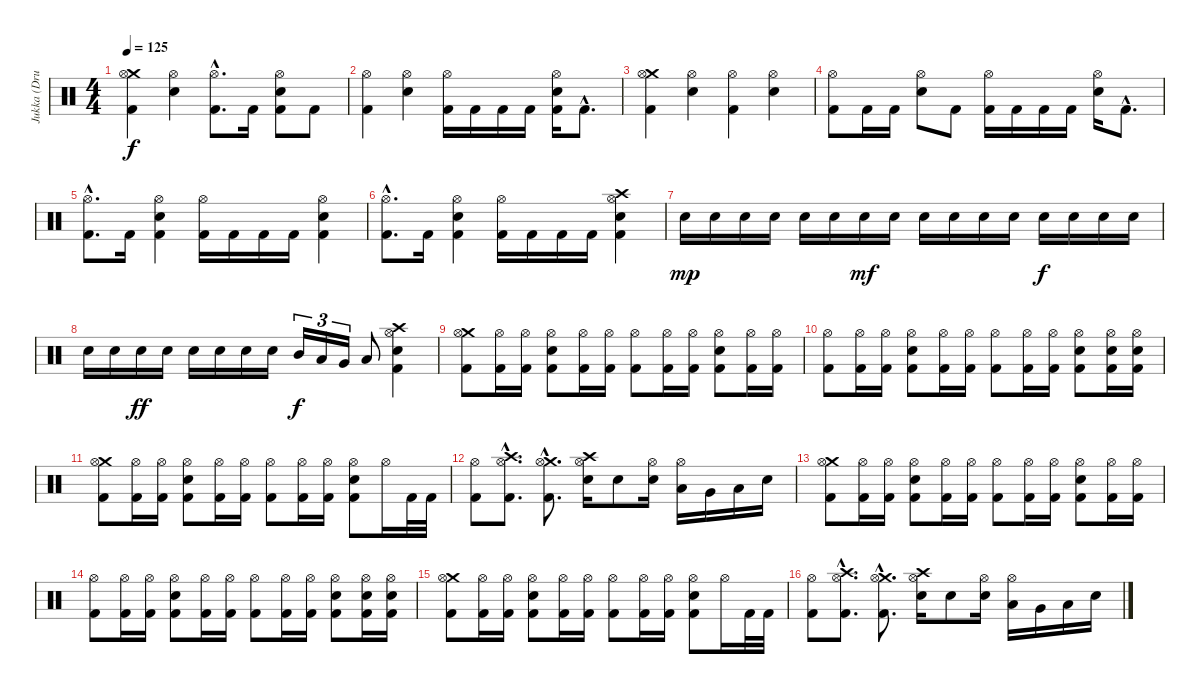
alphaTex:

\track ("Jukka (Drums)" "Jukka (Dru") {instrument percussion}
\staff {score}
\articulation defaults
\ts (4 4)
\tempo 125
\clef neutral
\ks c
("Crash medium (hit)" "Hi-Hat (open)" "Kick (hit) 2").4{dy f} ("Hi-Hat (open)" "Electric Snare (hit)").4 ("Hi-Hat (open)"{hac} "Kick (hit) 2"{hac}).8{d} "Kick (hit) 2".16 ("Hi-Hat (open)" "Electric Snare (hit)" "Kick (hit) 2").8 "Kick (hit) 2".8 |
("Hi-Hat (open)" "Kick (hit) 2").4 ("Hi-Hat (open)" "Electric Snare (hit)").4 ("Hi-Hat (open)" "Kick (hit) 2").16 "Kick (hit) 2".16 "Kick (hit) 2".16 "Kick (hit) 2".16 ("Hi-Hat (open)" "Electric Snare (hit)" "Kick (hit) 2").16 "Kick (hit) 2"{hac}.8{d} |
("Crash medium (hit)" "Hi-Hat (open)" "Kick (hit) 2").4 ("Hi-Hat (open)" "Electric Snare (hit)").4 ("Hi-Hat (open)" "Kick (hit) 2").4 ("Hi-Hat (open)" "Electric Snare (hit)").4 |
("Hi-Hat (open)" "Kick (hit) 2").8 "Kick (hit) 2".16 "Kick (hit) 2".16 ("Hi-Hat (open)" "Electric Snare (hit)").8 "Kick (hit) 2".8 ("Hi-Hat (open)" "Kick (hit) 2").16 "Kick (hit) 2".16 "Kick (hit) 2".16 "Kick (hit) 2".16 ("Hi-Hat (open)" "Electric Snare (hit)").16 "Kick (hit) 2"{hac}.8{d} |
("Hi-Hat (open)"{hac} "Kick (hit) 2"{hac}).8{d} "Kick (hit) 2".16 ("Hi-Hat (open)" "Electric Snare (hit)" "Kick (hit) 2").4 ("Hi-Hat (open)" "Kick (hit) 2").16 "Kick (hit) 2".16 "Kick (hit) 2".16 "Kick (hit) 2".16 ("Hi-Hat (open)" "Electric Snare (hit)" "Kick (hit) 2").4 |
("Hi-Hat (open)"{hac} "Kick (hit) 2"{hac}).8{d} "Kick (hit) 2".16 ("Hi-Hat (open)" "Electric Snare (hit)" "Kick (hit) 2").4 ("Hi-Hat (open)" "Kick (hit) 2").16 "Kick (hit) 2".16 "Kick (hit) 2".16 "Kick (hit) 2".16 ("Crash high (hit)" "Hi-Hat (open)" "Electric Snare (hit)" "Kick (hit) 2").4 |
"Electric Snare (hit)".16{dy mp} "Electric Snare (hit)".16 "Electric Snare (hit)".16 "Electric Snare (hit)".16 "Electric Snare (hit)".16 "Electric Snare (hit)".16 "Electric Snare (hit)".16{dy mf} "Electric Snare (hit)".16 "Electric Snare (hit)".16 "Electric Snare (hit)".16 "Electric Snare (hit)".16 "Electric Snare (hit)".16 "Electric Snare (hit)".16{dy f} "Electric Snare (hit)".16 "Electric Snare (hit)".16 "Electric Snare (hit)".16 |
"Electric Snare (hit)".16 "Electric Snare (hit)".16 "Electric Snare (hit)".16{dy ff} "Electric Snare (hit)".16 "Electric Snare (hit)".16 "Electric Snare (hit)".16 "Electric Snare (hit)".16 "Electric Snare (hit)".16 "Mid Tom (hit)".16{tu (3 2) dy f} "Low Tom (hit)".16{tu (3 2)} "Very Low Tom (hit)".16{tu (3 2)} "Low Floor Tom (hit)".8 ("Crash high (hit)" "Hi-Hat (open)" "Electric Snare (hit)" "Kick (hit) 2").4 |
("Crash medium (hit)" "Hi-Hat (open)" "Kick (hit) 2").8 ("Hi-Hat (open)" "Kick (hit) 2").16 ("Hi-Hat (open)" "Kick (hit) 2").16 ("Hi-Hat (open)" "Electric Snare (hit)" "Kick (hit) 2").8 ("Hi-Hat (open)" "Kick (hit) 2").16 ("Hi-Hat (open)" "Kick (hit) 2").16 ("Hi-Hat (open)" "Kick (hit) 2").8 ("Hi-Hat (open)" "Kick (hit) 2").16 ("Hi-Hat (open)" "Kick (hit) 2").16 ("Hi-Hat (open)" "Electric Snare (hit)" "Kick (hit) 2").8 ("Hi-Hat (open)" "Kick (hit) 2").16 ("Hi-Hat (open)" "Kick (hit) 2").16 |
("Hi-Hat (open)" "Kick (hit) 2").8 ("Hi-Hat (open)" "Kick (hit) 2").16 ("Hi-Hat (open)" "Kick (hit) 2").16 ("Hi-Hat (open)" "Electric Snare (hit)" "Kick (hit) 2").8 ("Hi-Hat (open)" "Kick (hit) 2").16 ("Hi-Hat (open)" "Kick (hit) 2").16 ("Hi-Hat (open)" "Kick (hit) 2").8 ("Hi-Hat (open)" "Kick (hit) 2").16 ("Hi-Hat (open)" "Kick (hit) 2").16 ("Hi-Hat (open)" "Electric Snare (hit)" "Kick (hit) 2").8 ("Hi-Hat (open)" "Electric Snare (hit)" "Kick (hit) 2").16 ("Hi-Hat (open)" "Electric Snare (hit)" "Kick (hit) 2").16 |
("Crash medium (hit)" "Hi-Hat (open)" "Kick (hit) 2").8 ("Hi-Hat (open)" "Kick (hit) 2").16 ("Hi-Hat (open)" "Kick (hit) 2").16 ("Hi-Hat (open)" "Electric Snare (hit)" "Kick (hit) 2").8 ("Hi-Hat (open)" "Kick (hit) 2").16 ("Hi-Hat (open)" "Kick (hit) 2").16 ("Hi-Hat (open)" "Kick (hit) 2").8 ("Hi-Hat (open)" "Kick (hit) 2").16 ("Hi-Hat (open)" "Kick (hit) 2").16 ("Hi-Hat (open)" "Electric Snare (hit)" "Kick (hit) 2").8 "Hi-Hat (open)".16 "Kick (hit) 2".32 "Kick (hit) 2".32 |
("Hi-Hat (open)" "Kick (hit) 2").8 ("Crash high (hit)"{hac} "Hi-Hat (open)"{hac} "Kick (hit) 2"{hac}).8{d} ("Crash medium (hit)"{hac} "Hi-Hat (open)"{hac} "Kick (hit) 2"{hac}).8{d} ("Crash high (hit)" "Hi-Hat (open)" "Electric Snare (hit)").16 "Electric Snare (hit)".8 ("Hi-Hat (open)" "Electric Snare (hit)").16 ("Hi-Hat (open)" "Low Tom (hit)").16 "Very Low Tom (hit)".16 "Low Floor Tom (hit)".16 "Electric Snare (hit)".16 |
("Crash medium (hit)" "Hi-Hat (open)" "Kick (hit) 2").8 ("Hi-Hat (open)" "Kick (hit) 2").16 ("Hi-Hat (open)" "Kick (hit) 2").16 ("Hi-Hat (open)" "Electric Snare (hit)" "Kick (hit) 2").8 ("Hi-Hat (open)" "Kick (hit) 2").16 ("Hi-Hat (open)" "Kick (hit) 2").16 ("Hi-Hat (open)" "Kick (hit) 2").8 ("Hi-Hat (open)" "Kick (hit) 2").16 ("Hi-Hat (open)" "Kick (hit) 2").16 ("Hi-Hat (open)" "Electric Snare (hit)" "Kick (hit) 2").8 ("Hi-Hat (open)" "Kick (hit) 2").16 ("Hi-Hat (open)" "Kick (hit) 2").16 |
("Hi-Hat (open)" "Kick (hit) 2").8 ("Hi-Hat (open)" "Kick (hit) 2").16 ("Hi-Hat (open)" "Kick (hit) 2").16 ("Hi-Hat (open)" "Electric Snare (hit)" "Kick (hit) 2").8 ("Hi-Hat (open)" "Kick (hit) 2").16 ("Hi-Hat (open)" "Kick (hit) 2").16 ("Hi-Hat (open)" "Kick (hit) 2").8 ("Hi-Hat (open)" "Kick (hit) 2").16 ("Hi-Hat (open)" "Kick (hit) 2").16 ("Hi-Hat (open)" "Electric Snare (hit)" "Kick (hit) 2").8 ("Hi-Hat (open)" "Electric Snare (hit)" "Kick (hit) 2").16 ("Hi-Hat (open)" "Electric Snare (hit)" "Kick (hit) 2").16 |
("Crash medium (hit)" "Hi-Hat (open)" "Kick (hit) 2").8 ("Hi-Hat (open)" "Kick (hit) 2").16 ("Hi-Hat (open)" "Kick (hit) 2").16 ("Hi-Hat (open)" "Electric Snare (hit)" "Kick (hit) 2").8 ("Hi-Hat (open)" "Kick (hit) 2").16 ("Hi-Hat (open)" "Kick (hit) 2").16 ("Hi-Hat (open)" "Kick (hit) 2").8 ("Hi-Hat (open)" "Kick (hit) 2").16 ("Hi-Hat (open)" "Kick (hit) 2").16 ("Hi-Hat (open)" "Electric Snare (hit)" "Kick (hit) 2").8 "Hi-Hat (open)".16 "Kick (hit) 2".32 "Kick (hit) 2".32 |
("Hi-Hat (open)" "Kick (hit) 2").8 ("Crash high (hit)"{hac} "Hi-Hat (open)"{hac} "Kick (hit) 2"{hac}).8{d} ("Crash medium (hit)"{hac} "Hi-Hat (open)"{hac} "Kick (hit) 2"{hac}).8{d} ("Crash high (hit)" "Hi-Hat (open)" "Electric Snare (hit)").16 "Electric Snare (hit)".8 ("Hi-Hat (open)" "Electric Snare (hit)").16 ("Hi-Hat (open)" "Low Tom (hit)").16 "Very Low Tom (hit)".16 "Low Floor Tom (hit)".16 "Electric Snare (hit)".16
